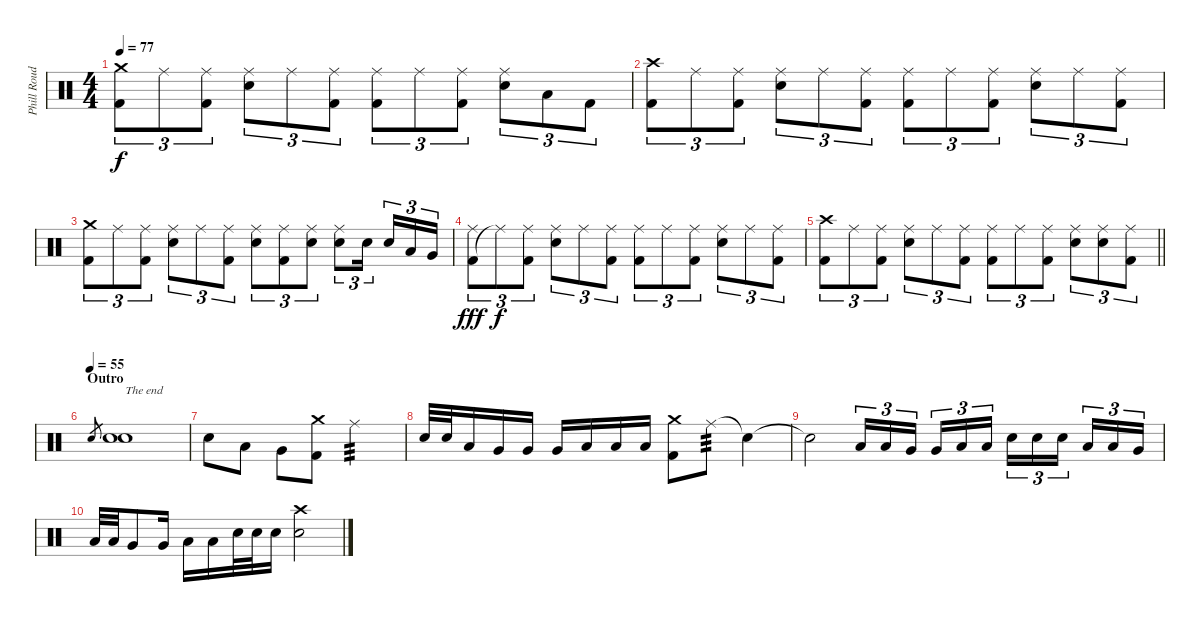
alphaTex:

\track ("Phill Roud" "Phill Roud") {instrument percussion}
\staff {score}
\articulation defaults
\ts (4 4)
\tempo 77
\clef neutral
\ks c
("Kick (hit) 2" "Crash medium (hit)").8{tu (3 2) dy f} "Ride (middle)".8{tu (3 2)} ("Kick (hit) 2" "Ride (middle)").8{tu (3 2)} ("Electric Snare (hit)" "Ride (middle)").8{tu (3 2)} "Ride (middle)".8{tu (3 2)} ("Kick (hit) 2" "Ride (middle)").8{tu (3 2)} ("Kick (hit) 2" "Ride (middle)").8{tu (3 2)} "Ride (middle)".8{tu (3 2)} ("Kick (hit) 2" "Ride (middle)").8{tu (3 2)} ("Electric Snare (hit)" "Ride (middle)").8{tu (3 2)} "Low Tom (hit)".8{tu (3 2)} "Kick (hit) 2".8{tu (3 2)} |
("Kick (hit) 2" "Crash high (hit)").8{tu (3 2)} "Ride (middle)".8{tu (3 2)} ("Kick (hit) 2" "Ride (middle)").8{tu (3 2)} ("Electric Snare (hit)" "Ride (middle)").8{tu (3 2)} "Ride (middle)".8{tu (3 2)} ("Kick (hit) 2" "Ride (middle)").8{tu (3 2)} ("Kick (hit) 2" "Ride (middle)").8{tu (3 2)} "Ride (middle)".8{tu (3 2)} ("Kick (hit) 2" "Ride (middle)").8{tu (3 2)} ("Electric Snare (hit)" "Ride (middle)").8{tu (3 2)} "Ride (middle)".8{tu (3 2)} ("Kick (hit) 2" "Ride (middle)").8{tu (3 2)} |
("Kick (hit) 2" "Crash medium (hit)").8{tu (3 2)} "Ride (middle)".8{tu (3 2)} ("Kick (hit) 2" "Ride (middle)").8{tu (3 2)} ("Electric Snare (hit)" "Ride (middle)").8{tu (3 2)} "Ride (middle)".8{tu (3 2)} ("Kick (hit) 2" "Ride (middle)").8{tu (3 2)} ("Electric Snare (hit)" "Ride (middle)").8{tu (3 2)} ("Kick (hit) 2" "Ride (middle)").8{tu (3 2)} ("Electric Snare (hit)" "Ride (middle)").8{tu (3 2)} ("Electric Snare (hit)" "Ride (middle)").8{tu (3 2)} "Electric Snare (hit)".16{tu (3 2) beam splitsecondary} "Electric Snare (hit)".16{tu (3 2)} "Low Tom (hit)".16{tu (3 2)} "Very Low Tom (hit)".16{tu (3 2)} |
("Kick (hit) 2" "Ride (middle)").8{tu (3 2) dy fff} "Ride (middle)"{t}.8{tu (3 2) dy f} ("Kick (hit) 2" "Ride (middle)").8{tu (3 2)} ("Electric Snare (hit)" "Ride (middle)").8{tu (3 2)} "Ride (middle)".8{tu (3 2)} ("Kick (hit) 2" "Ride (middle)").8{tu (3 2)} ("Kick (hit) 2" "Ride (middle)").8{tu (3 2)} "Ride (middle)".8{tu (3 2)} ("Kick (hit) 2" "Ride (middle)").8{tu (3 2)} ("Electric Snare (hit)" "Ride (middle)").8{tu (3 2)} "Ride (middle)".8{tu (3 2)} ("Kick (hit) 2" "Ride (middle)").8{tu (3 2)} |
\barLineRight lightlight
("Kick (hit) 2" "Crash high (hit)").8{tu (3 2)} "Ride (middle)".8{tu (3 2)} ("Kick (hit) 2" "Ride (middle)").8{tu (3 2)} ("Electric Snare (hit)" "Ride (middle)").8{tu (3 2)} "Ride (middle)".8{tu (3 2)} ("Kick (hit) 2" "Ride (middle)").8{tu (3 2)} ("Kick (hit) 2" "Ride (middle)").8{tu (3 2)} "Ride (middle)".8{tu (3 2)} ("Kick (hit) 2" "Ride (middle)").8{tu (3 2)} ("Electric Snare (hit)" "Ride (middle)").8{tu (3 2)} ("Electric Snare (hit)" "Ride (middle)").8{tu (3 2)} ("Kick (hit) 2" "Ride (middle)").8{tu (3 2)} |
\section ("" "Outro")
\tempo (55)
"Electric Snare (hit)".8{gr} ("Electric Snare (hit)" "Electric Snare (hit)").1{txt "The end"} |
"Electric Snare (hit)".8 "Low Tom (hit)".8 "Very Low Tom (hit)".8 ("Kick (hit) 2" "Crash medium (hit)").8 "Ride (middle)".2{tp 3} |
"Electric Snare (hit)".32 "Electric Snare (hit)".32 "Low Tom (hit)".16 "Very Low Tom (hit)".16 "Very Low Tom (hit)".16 "Very Low Tom (hit)".16 "Low Floor Tom (hit)".16 "Low Floor Tom (hit)".16 "Low Floor Tom (hit)".16 ("Kick (hit) 2" "Crash medium (hit)").8 "Ride (middle)".8{tp 3} "Snare (hit)"{t}.4 |
"Snare (hit)"{t}.2 "Low Tom (hit)".16{tu (3 2)} "Low Tom (hit)".16{tu (3 2)} "Very Low Tom (hit)".16{tu (3 2) beam splitsecondary} "Very Low Tom (hit)".16{tu (3 2)} "Low Floor Tom (hit)".16{tu (3 2)} "Low Floor Tom (hit)".16{tu (3 2)} "Electric Snare (hit)".16{tu (3 2)} "Electric Snare (hit)".16{tu (3 2)} "Electric Snare (hit)".16{tu (3 2) beam splitsecondary} "Low Tom (hit)".16{tu (3 2)} "Low Tom (hit)".16{tu (3 2)} "Very Low Tom (hit)".16{tu (3 2)} |
"Low Tom (hit)".32 "Low Tom (hit)".32 "Very Low Tom (hit)".8 "Very Low Tom (hit)".16 "Low Floor Tom (hit)".16 "Low Floor Tom (hit)".16 "Electric Snare (hit)".32 "Electric Snare (hit)".32 "Electric Snare (hit)".16 ("Electric Snare (hit)" "Crash high (hit)").2
